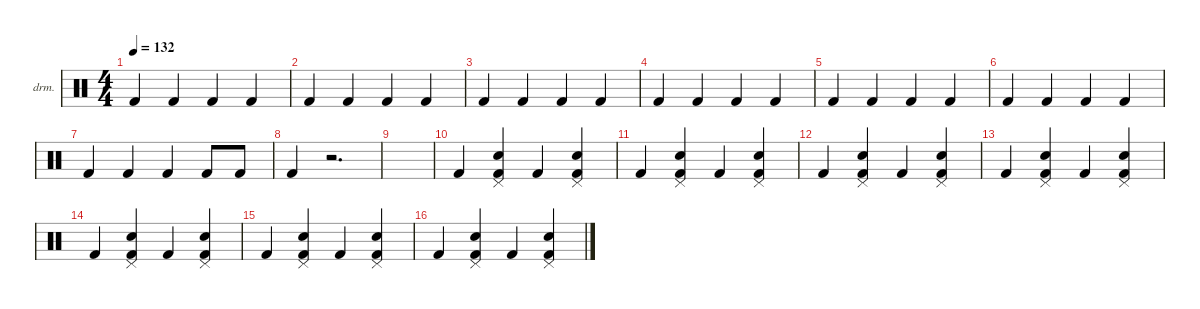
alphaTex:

\defaultSystemsLayout 4
\hideDynamics
\bracketExtendMode nobrackets
\firstSystemTrackNameOrientation horizontal
\otherSystemsTrackNameOrientation horizontal
\track ("Drumkit" "drm.") {instrument percussion}
\staff {score}
\articulation defaults
\ts (4 4)
\tempo 132
\clef neutral
\ks c "Kick (hit) 2".4{dy mf beam Up} "Kick (hit) 2".4{beam Up} "Kick (hit) 2".4{beam Up} "Kick (hit) 2".4{beam Up}
|
"Kick (hit) 2".4{beam Up} "Kick (hit) 2".4{beam Up} "Kick (hit) 2".4{beam Up} "Kick (hit) 2".4{beam Up} |
"Kick (hit) 2".4{beam Up} "Kick (hit) 2".4{beam Up} "Kick (hit) 2".4{beam Up} "Kick (hit) 2".4{beam Up} |
"Kick (hit) 2".4{beam Up} "Kick (hit) 2".4{beam Up} "Kick (hit) 2".4{beam Up} "Kick (hit) 2".4{beam Up} |
"Kick (hit) 2".4{beam Up} "Kick (hit) 2".4{beam Up} "Kick (hit) 2".4{beam Up} "Kick (hit) 2".4{beam Up} |
"Kick (hit) 2".4{beam Up} "Kick (hit) 2".4{beam Up} "Kick (hit) 2".4{beam Up} "Kick (hit) 2".4{beam Up} |
"Kick (hit) 2".4{beam Up} "Kick (hit) 2".4{beam Up} "Kick (hit) 2".4{beam Up} "Kick (hit) 2".8{beam Up} "Kick (hit) 2".8{beam Up} |
"Kick (hit) 2".4{beam Up} r.2{d beam Up} |
|
"Kick (hit) 2".4{beam Up} ("Kick (hit) 2" "Pedal Hi-Hat (hit)" "Snare (hit) 2").4{beam Up} "Kick (hit) 2".4{beam Up} ("Kick (hit) 2" "Pedal Hi-Hat (hit)" "Snare (hit) 2").4{beam Up} |
"Kick (hit) 2".4{beam Up} ("Kick (hit) 2" "Pedal Hi-Hat (hit)" "Snare (hit) 2").4{beam Up} "Kick (hit) 2".4{beam Up} ("Kick (hit) 2" "Pedal Hi-Hat (hit)" "Snare (hit) 2").4{beam Up} |
"Kick (hit) 2".4{beam Up} ("Kick (hit) 2" "Pedal Hi-Hat (hit)" "Snare (hit) 2").4{beam Up} "Kick (hit) 2".4{beam Up} ("Kick (hit) 2" "Pedal Hi-Hat (hit)" "Snare (hit) 2").4{beam Up} |
"Kick (hit) 2".4{beam Up} ("Kick (hit) 2" "Pedal Hi-Hat (hit)" "Snare (hit) 2").4{beam Up} "Kick (hit) 2".4{beam Up} ("Kick (hit) 2" "Pedal Hi-Hat (hit)" "Snare (hit) 2").4{beam Up} |
"Kick (hit) 2".4{beam Up} ("Kick (hit) 2" "Pedal Hi-Hat (hit)" "Snare (hit) 2").4{beam Up} "Kick (hit) 2".4{beam Up} ("Kick (hit) 2" "Pedal Hi-Hat (hit)" "Snare (hit) 2").4{beam Up} |
"Kick (hit) 2".4{beam Up} ("Kick (hit) 2" "Pedal Hi-Hat (hit)" "Snare (hit) 2").4{beam Up} "Kick (hit) 2".4{beam Up} ("Kick (hit) 2" "Pedal Hi-Hat (hit)" "Snare (hit) 2").4{beam Up} |
"Kick (hit) 2".4{beam Up} ("Kick (hit) 2" "Pedal Hi-Hat (hit)" "Snare (hit) 2").4{beam Up} "Kick (hit) 2".4{beam Up} ("Kick (hit) 2" "Pedal Hi-Hat (hit)" "Snare (hit) 2").4{beam Up}
